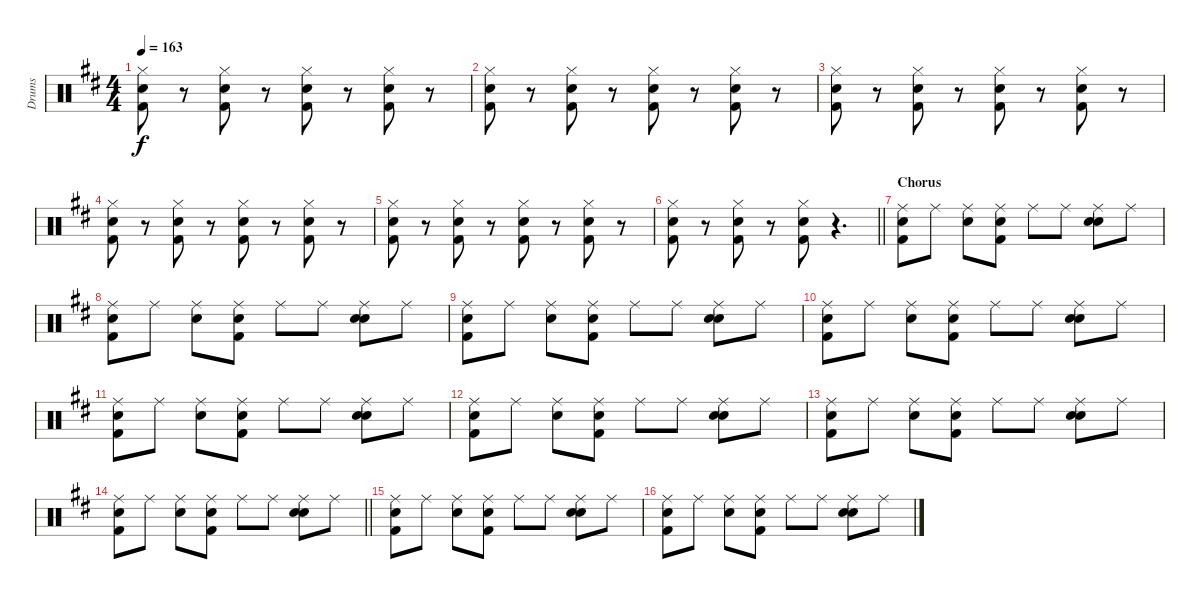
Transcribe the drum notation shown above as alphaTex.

\track ("Drums" "Drums") {instrument percussion}
\staff {score}
\articulation defaults
\ts (4 4)
\tempo 163
\clef neutral
\ks d
("Hi-Hat (closed)" "Snare (hit) 2" "Kick (hit) 2").8{dy f} r.8 ("Hi-Hat (closed)" "Snare (hit) 2" "Kick (hit) 2").8 r.8 ("Hi-Hat (closed)" "Snare (hit) 2" "Kick (hit) 2").8 r.8 ("Hi-Hat (closed)" "Snare (hit) 2" "Kick (hit) 2").8 r.8 |
("Hi-Hat (closed)" "Snare (hit) 2" "Kick (hit) 2").8 r.8 ("Hi-Hat (closed)" "Snare (hit) 2" "Kick (hit) 2").8 r.8 ("Hi-Hat (closed)" "Snare (hit) 2" "Kick (hit) 2").8 r.8 ("Hi-Hat (closed)" "Snare (hit) 2" "Kick (hit) 2").8 r.8 |
("Hi-Hat (closed)" "Snare (hit) 2" "Kick (hit) 2").8 r.8 ("Hi-Hat (closed)" "Snare (hit) 2" "Kick (hit) 2").8 r.8 ("Hi-Hat (closed)" "Snare (hit) 2" "Kick (hit) 2").8 r.8 ("Hi-Hat (closed)" "Snare (hit) 2" "Kick (hit) 2").8 r.8 |
("Hi-Hat (closed)" "Snare (hit) 2" "Kick (hit) 2").8 r.8 ("Hi-Hat (closed)" "Snare (hit) 2" "Kick (hit) 2").8 r.8 ("Hi-Hat (closed)" "Snare (hit) 2" "Kick (hit) 2").8 r.8 ("Hi-Hat (closed)" "Snare (hit) 2" "Kick (hit) 2").8 r.8 |
("Hi-Hat (closed)" "Snare (hit) 2" "Kick (hit) 2").8 r.8 ("Hi-Hat (closed)" "Snare (hit) 2" "Kick (hit) 2").8 r.8 ("Hi-Hat (closed)" "Snare (hit) 2" "Kick (hit) 2").8 r.8 ("Hi-Hat (closed)" "Snare (hit) 2" "Kick (hit) 2").8 r.8 |
\barLineRight lightlight
("Hi-Hat (closed)" "Snare (hit) 2" "Kick (hit) 2").8 r.8 ("Hi-Hat (closed)" "Snare (hit) 2" "Kick (hit) 2").8 r.8 ("Hi-Hat (closed)" "Snare (hit) 2" "Kick (hit) 2").8 r.4{d} |
\section ("" "Chorus")
("Ride (middle)" "Snare (hit) 2" "Kick (hit) 2").8 "Ride (middle)".8 ("Ride (middle)" "Hand Clap (hit)").8 ("Ride (middle)" "Snare (hit) 2" "Kick (hit) 2").8 "Ride (middle)".8 "Ride (middle)".8 ("Ride (middle)" "Hand Clap (hit)" "Snare (hit) 2").8 "Ride (middle)".8 |
("Ride (middle)" "Snare (hit) 2" "Kick (hit) 2").8 "Ride (middle)".8 ("Ride (middle)" "Hand Clap (hit)").8 ("Ride (middle)" "Snare (hit) 2" "Kick (hit) 2").8 "Ride (middle)".8 "Ride (middle)".8 ("Ride (middle)" "Hand Clap (hit)" "Snare (hit) 2").8 "Ride (middle)".8 |
("Ride (middle)" "Snare (hit) 2" "Kick (hit) 2").8 "Ride (middle)".8 ("Ride (middle)" "Hand Clap (hit)").8 ("Ride (middle)" "Snare (hit) 2" "Kick (hit) 2").8 "Ride (middle)".8 "Ride (middle)".8 ("Ride (middle)" "Hand Clap (hit)" "Snare (hit) 2").8 "Ride (middle)".8 |
("Ride (middle)" "Snare (hit) 2" "Kick (hit) 2").8 "Ride (middle)".8 ("Ride (middle)" "Hand Clap (hit)").8 ("Ride (middle)" "Snare (hit) 2" "Kick (hit) 2").8 "Ride (middle)".8 "Ride (middle)".8 ("Ride (middle)" "Hand Clap (hit)" "Snare (hit) 2").8 "Ride (middle)".8 |
("Ride (middle)" "Snare (hit) 2" "Kick (hit) 2").8 "Ride (middle)".8 ("Ride (middle)" "Hand Clap (hit)").8 ("Ride (middle)" "Snare (hit) 2" "Kick (hit) 2").8 "Ride (middle)".8 "Ride (middle)".8 ("Ride (middle)" "Hand Clap (hit)" "Snare (hit) 2").8 "Ride (middle)".8 |
("Ride (middle)" "Snare (hit) 2" "Kick (hit) 2").8 "Ride (middle)".8 ("Ride (middle)" "Hand Clap (hit)").8 ("Ride (middle)" "Snare (hit) 2" "Kick (hit) 2").8 "Ride (middle)".8 "Ride (middle)".8 ("Ride (middle)" "Hand Clap (hit)" "Snare (hit) 2").8 "Ride (middle)".8 |
("Ride (middle)" "Snare (hit) 2" "Kick (hit) 2").8 "Ride (middle)".8 ("Ride (middle)" "Hand Clap (hit)").8 ("Ride (middle)" "Snare (hit) 2" "Kick (hit) 2").8 "Ride (middle)".8 "Ride (middle)".8 ("Ride (middle)" "Hand Clap (hit)" "Snare (hit) 2").8 "Ride (middle)".8 |
\barLineRight lightlight
("Ride (middle)" "Snare (hit) 2" "Kick (hit) 2").8 "Ride (middle)".8 ("Ride (middle)" "Hand Clap (hit)").8 ("Ride (middle)" "Snare (hit) 2" "Kick (hit) 2").8 "Ride (middle)".8 "Ride (middle)".8 ("Ride (middle)" "Hand Clap (hit)" "Snare (hit) 2").8 "Ride (middle)".8 |
("Ride (middle)" "Snare (hit) 2" "Kick (hit) 2").8 "Ride (middle)".8 ("Ride (middle)" "Hand Clap (hit)").8 ("Ride (middle)" "Snare (hit) 2" "Kick (hit) 2").8 "Ride (middle)".8 "Ride (middle)".8 ("Ride (middle)" "Hand Clap (hit)" "Snare (hit) 2").8 "Ride (middle)".8 |
("Ride (middle)" "Snare (hit) 2" "Kick (hit) 2").8 "Ride (middle)".8 ("Ride (middle)" "Hand Clap (hit)").8 ("Ride (middle)" "Snare (hit) 2" "Kick (hit) 2").8 "Ride (middle)".8 "Ride (middle)".8 ("Ride (middle)" "Hand Clap (hit)" "Snare (hit) 2").8 "Ride (middle)".8
